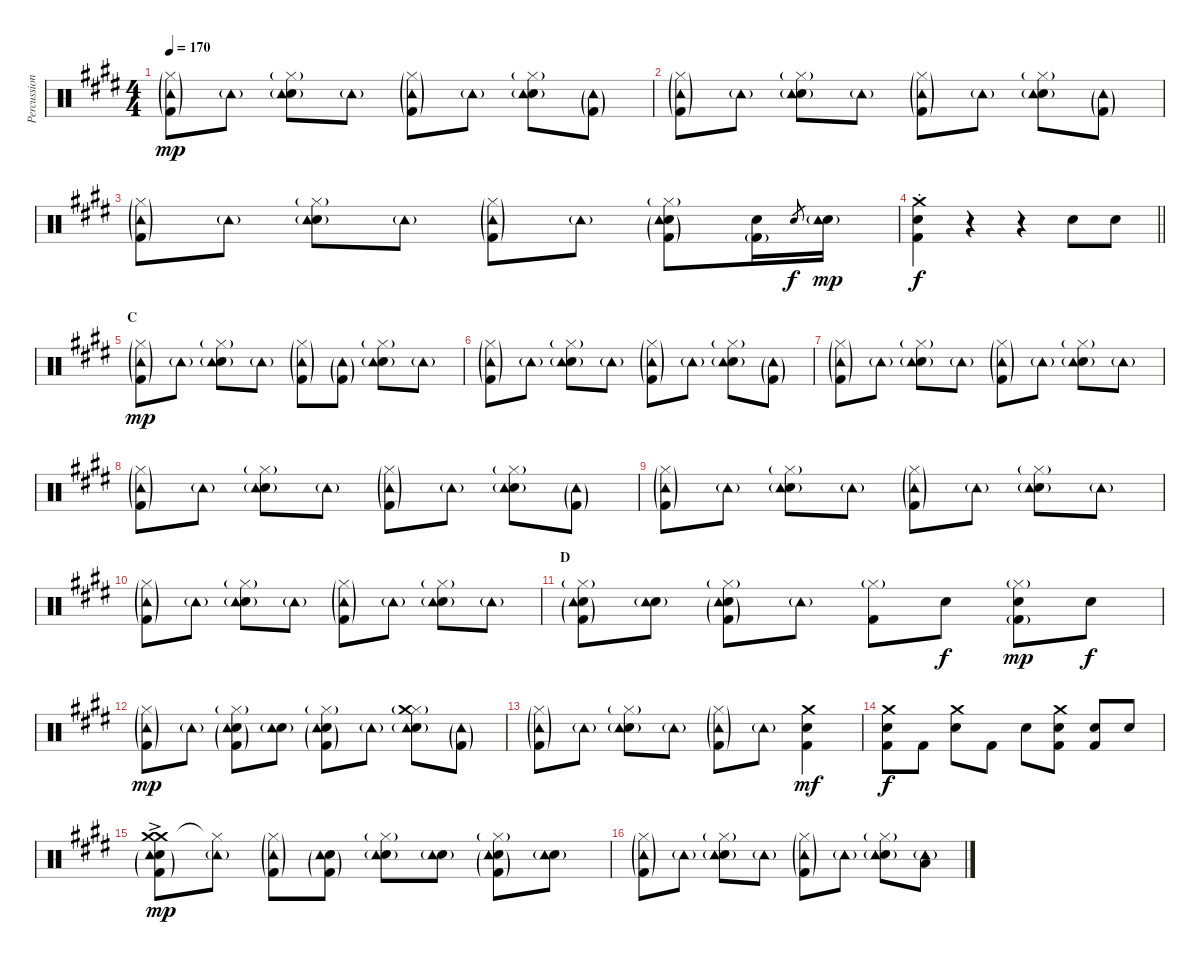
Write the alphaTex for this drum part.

\track ("Percussion" "Percussion") {instrument percussion}
\staff {score}
\articulation defaults
\ts (4 4)
\tempo 170
\clef neutral
\ks e
("Hi-Hat (closed)"{g} "Kick (hit) 2"{g} "Tambourine (hit)"{g}).8{dy mp} "Tambourine (hit)"{g}.8 ("Hi-Hat (closed)"{g} "Snare (hit) 2" "Tambourine (hit)"{g}).8 "Tambourine (hit)"{g}.8 ("Hi-Hat (closed)"{g} "Kick (hit) 2"{g} "Tambourine (hit)"{g}).8 "Tambourine (hit)"{g}.8 ("Hi-Hat (closed)"{g} "Snare (hit) 2" "Tambourine (hit)"{g}).8 ("Kick (hit) 2"{g} "Tambourine (hit)"{g}).8 |
("Hi-Hat (closed)"{g} "Kick (hit) 2"{g} "Tambourine (hit)"{g}).8 "Tambourine (hit)"{g}.8 ("Hi-Hat (closed)"{g} "Snare (hit) 2" "Tambourine (hit)"{g}).8 "Tambourine (hit)"{g}.8 ("Hi-Hat (closed)"{g} "Kick (hit) 2"{g} "Tambourine (hit)"{g}).8 "Tambourine (hit)"{g}.8 ("Hi-Hat (closed)"{g} "Snare (hit) 2" "Tambourine (hit)"{g}).8 ("Kick (hit) 2"{g} "Tambourine (hit)"{g}).8 |
("Hi-Hat (closed)"{g} "Kick (hit) 2"{g} "Tambourine (hit)"{g}).8 "Tambourine (hit)"{g}.8 ("Hi-Hat (closed)"{g} "Snare (hit) 2" "Tambourine (hit)"{g}).8 "Tambourine (hit)"{g}.8 ("Hi-Hat (closed)"{g} "Kick (hit) 2"{g} "Tambourine (hit)"{g}).8 "Tambourine (hit)"{g}.8 ("Hi-Hat (closed)"{g} "Kick (hit) 2"{g} "Snare (hit) 2" "Tambourine (hit)"{g}).8 ("Snare (hit) 2" "Kick (hit) 2"{g}).16 "Snare (hit) 2".8{gr dy f} ("Snare (hit) 2" "Tambourine (hit)"{g}).16{dy mp} |
\barLineRight lightlight
("Crash medium (hit)"{st} "Snare (hit) 2" "Kick (hit) 2").4{dy f} r.4 r.4 "Snare (hit) 2".8 "Snare (hit) 2".8 |
\section ("" "C")
("Hi-Hat (closed)"{g} "Kick (hit) 2"{g} "Tambourine (hit)"{g}).8{dy mp} "Tambourine (hit)"{g}.8 ("Hi-Hat (closed)"{g} "Snare (hit) 2" "Tambourine (hit)"{g}).8 "Tambourine (hit)"{g}.8 ("Hi-Hat (closed)"{g} "Kick (hit) 2"{g} "Tambourine (hit)"{g}).8 ("Kick (hit) 2"{g} "Tambourine (hit)"{g}).8 ("Hi-Hat (closed)"{g} "Snare (hit) 2" "Tambourine (hit)"{g}).8 "Tambourine (hit)"{g}.8 |
("Hi-Hat (closed)"{g} "Kick (hit) 2"{g} "Tambourine (hit)"{g}).8 "Tambourine (hit)"{g}.8 ("Hi-Hat (closed)"{g} "Snare (hit) 2" "Tambourine (hit)"{g}).8 "Tambourine (hit)"{g}.8 ("Hi-Hat (closed)"{g} "Kick (hit) 2"{g} "Tambourine (hit)"{g}).8 "Tambourine (hit)"{g}.8 ("Hi-Hat (closed)"{g} "Snare (hit) 2" "Tambourine (hit)"{g}).8 ("Kick (hit) 2"{g} "Tambourine (hit)"{g}).8 |
("Hi-Hat (closed)"{g} "Kick (hit) 2"{g} "Tambourine (hit)"{g}).8 "Tambourine (hit)"{g}.8 ("Hi-Hat (closed)"{g} "Snare (hit) 2" "Tambourine (hit)"{g}).8 "Tambourine (hit)"{g}.8 ("Hi-Hat (closed)"{g} "Kick (hit) 2"{g} "Tambourine (hit)"{g}).8 "Tambourine (hit)"{g}.8 ("Hi-Hat (closed)"{g} "Snare (hit) 2" "Tambourine (hit)"{g}).8 "Tambourine (hit)"{g}.8 |
("Hi-Hat (closed)"{g} "Kick (hit) 2"{g} "Tambourine (hit)"{g}).8 "Tambourine (hit)"{g}.8 ("Hi-Hat (closed)"{g} "Snare (hit) 2" "Tambourine (hit)"{g}).8 "Tambourine (hit)"{g}.8 ("Hi-Hat (closed)"{g} "Kick (hit) 2"{g} "Tambourine (hit)"{g}).8 "Tambourine (hit)"{g}.8 ("Hi-Hat (closed)"{g} "Snare (hit) 2" "Tambourine (hit)"{g}).8 ("Kick (hit) 2"{g} "Tambourine (hit)"{g}).8 |
("Hi-Hat (closed)"{g} "Kick (hit) 2"{g} "Tambourine (hit)"{g}).8 "Tambourine (hit)"{g}.8 ("Hi-Hat (closed)"{g} "Snare (hit) 2" "Tambourine (hit)"{g}).8 "Tambourine (hit)"{g}.8 ("Hi-Hat (closed)"{g} "Kick (hit) 2"{g} "Tambourine (hit)"{g}).8 "Tambourine (hit)"{g}.8 ("Hi-Hat (closed)"{g} "Snare (hit) 2" "Tambourine (hit)"{g}).8 "Tambourine (hit)"{g}.8 |
("Hi-Hat (closed)"{g} "Kick (hit) 2"{g} "Tambourine (hit)"{g}).8 "Tambourine (hit)"{g}.8 ("Hi-Hat (closed)"{g} "Snare (hit) 2" "Tambourine (hit)"{g}).8 "Tambourine (hit)"{g}.8 ("Hi-Hat (closed)"{g} "Kick (hit) 2"{g} "Tambourine (hit)"{g}).8 "Tambourine (hit)"{g}.8 ("Hi-Hat (closed)"{g} "Snare (hit) 2" "Tambourine (hit)"{g}).8 "Tambourine (hit)"{g}.8 |
\section ("" "D")
("Hi-Hat (closed)"{g} "Snare (hit) 2" "Tambourine (hit)"{g} "Kick (hit) 2"{g}).8 ("Snare (hit) 2" "Tambourine (hit)"{g}).8 ("Hi-Hat (closed)"{g} "Snare (hit) 2" "Tambourine (hit)"{g} "Kick (hit) 2"{g}).8 "Tambourine (hit)"{g}.8 ("Hi-Hat (closed)"{g} "Kick (hit) 2").8 "Snare (hit) 2".8{dy f} ("Hi-Hat (closed)"{g} "Snare (hit) 2" "Kick (hit) 2"{g}).8{dy mp} "Snare (hit) 2".8{dy f} |
("Hi-Hat (closed)"{g} "Kick (hit) 2"{g} "Tambourine (hit)"{g}).8{dy mp} "Tambourine (hit)"{g}.8 ("Hi-Hat (closed)"{g} "Snare (hit) 2" "Tambourine (hit)"{g} "Kick (hit) 2"{g}).8 ("Snare (hit) 2" "Tambourine (hit)"{g}).8 ("Hi-Hat (closed)"{g} "Snare (hit) 2" "Tambourine (hit)"{g} "Kick (hit) 2"{g}).8 "Tambourine (hit)"{g}.8 ("Hi-Hat (closed)"{g} "Crash medium (hit)" "Snare (hit) 2" "Tambourine (hit)"{g}).8 ("Tambourine (hit)"{g} "Kick (hit) 2"{g}).8 |
("Hi-Hat (closed)"{g} "Tambourine (hit)"{g} "Kick (hit) 2"{g}).8 "Tambourine (hit)"{g}.8 ("Hi-Hat (closed)"{g} "Snare (hit) 2" "Tambourine (hit)"{g}).8 "Tambourine (hit)"{g}.8 ("Hi-Hat (closed)"{g} "Kick (hit) 2"{g} "Tambourine (hit)"{g}).8 "Tambourine (hit)"{g}.8 ("Crash medium (hit)" "Snare (hit) 2" "Kick (hit) 2").4{dy mf} |
("Crash medium (hit)" "Snare (hit) 2" "Kick (hit) 2").8{dy f} "Kick (hit) 2".8 ("Crash medium (hit)" "Snare (hit) 2").8 "Kick (hit) 2".8 "Snare (hit) 2".8 ("Crash medium (hit)" "Snare (hit) 2" "Kick (hit) 2").8 ("Snare (hit) 2" "Kick (hit) 2").8 "Snare (hit) 2".8 |
("Crash medium (hit)"{ac} "Crash medium (hit)"{ac} "Snare (hit) 2" "Tambourine (hit)"{g} "Kick (hit) 2"{g}).8{dy mp} ("Hi-Hat (closed)"{t} "Tambourine (hit)"{g}).8 ("Hi-Hat (closed)"{g} "Tambourine (hit)"{g} "Kick (hit) 2"{g}).8 ("Snare (hit) 2" "Tambourine (hit)"{g} "Kick (hit) 2"{g}).8 ("Hi-Hat (closed)"{g} "Snare (hit) 2" "Tambourine (hit)"{g}).8 ("Snare (hit) 2" "Tambourine (hit)"{g}).8 ("Hi-Hat (closed)"{g} "Snare (hit) 2" "Tambourine (hit)"{g} "Kick (hit) 2"{g}).8 ("Snare (hit) 2" "Tambourine (hit)"{g}).8 |
("Hi-Hat (closed)"{g} "Tambourine (hit)"{g} "Kick (hit) 2"{g}).8 "Tambourine (hit)"{g}.8 ("Hi-Hat (closed)"{g} "Snare (hit) 2" "Tambourine (hit)"{g}).8 "Tambourine (hit)"{g}.8 ("Hi-Hat (closed)"{g} "Tambourine (hit)"{g} "Kick (hit) 2"{g}).8 "Tambourine (hit)"{g}.8 ("Hi-Hat (closed)"{g} "Snare (hit) 2" "Tambourine (hit)"{g}).8 ("Low Tom (hit)" "Tambourine (hit)"{g}).8
